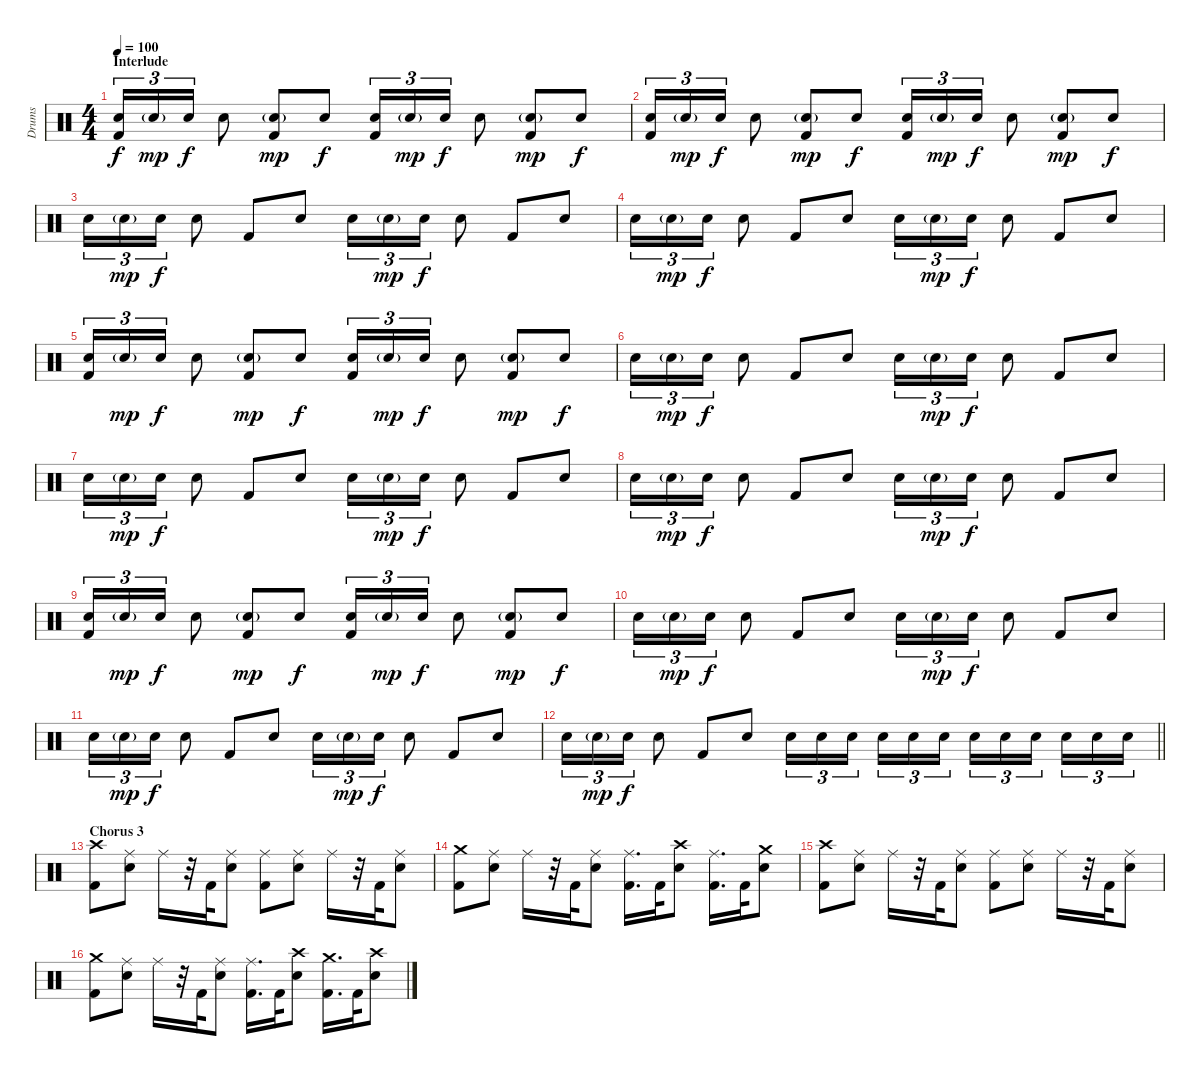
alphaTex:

\track ("Drums" "Drums") {instrument percussion}
\staff {score}
\articulation defaults
\ts (4 4)
\section ("" "Interlude")
\tempo 100
\clef neutral
\ks c
("Snare (hit) 2" "Kick (hit) 2").16{tu (3 2) dy f} "Snare (hit) 2"{g}.16{tu (3 2) dy mp} "Snare (hit) 2".16{tu (3 2) dy f} "Snare (hit) 2".8 ("Snare (hit) 2"{g} "Kick (hit) 2").8{dy mp} "Snare (hit) 2".8{dy f} ("Snare (hit) 2" "Kick (hit) 2").16{tu (3 2)} "Snare (hit) 2"{g}.16{tu (3 2) dy mp} "Snare (hit) 2".16{tu (3 2) dy f} "Snare (hit) 2".8 ("Snare (hit) 2"{g} "Kick (hit) 2").8{dy mp} "Snare (hit) 2".8{dy f} |
("Snare (hit) 2" "Kick (hit) 2").16{tu (3 2)} "Snare (hit) 2"{g}.16{tu (3 2) dy mp} "Snare (hit) 2".16{tu (3 2) dy f} "Snare (hit) 2".8 ("Snare (hit) 2"{g} "Kick (hit) 2").8{dy mp} "Snare (hit) 2".8{dy f} ("Snare (hit) 2" "Kick (hit) 2").16{tu (3 2)} "Snare (hit) 2"{g}.16{tu (3 2) dy mp} "Snare (hit) 2".16{tu (3 2) dy f} "Snare (hit) 2".8 ("Snare (hit) 2"{g} "Kick (hit) 2").8{dy mp} "Snare (hit) 2".8{dy f} |
"Snare (hit) 2".16{tu (3 2)} "Snare (hit) 2"{g}.16{tu (3 2) dy mp} "Snare (hit) 2".16{tu (3 2) dy f} "Snare (hit) 2".8 "Kick (hit) 2".8 "Snare (hit) 2".8 "Snare (hit) 2".16{tu (3 2)} "Snare (hit) 2"{g}.16{tu (3 2) dy mp} "Snare (hit) 2".16{tu (3 2) dy f} "Snare (hit) 2".8 "Kick (hit) 2".8 "Snare (hit) 2".8 |
"Snare (hit) 2".16{tu (3 2)} "Snare (hit) 2"{g}.16{tu (3 2) dy mp} "Snare (hit) 2".16{tu (3 2) dy f} "Snare (hit) 2".8 "Kick (hit) 2".8 "Snare (hit) 2".8 "Snare (hit) 2".16{tu (3 2)} "Snare (hit) 2"{g}.16{tu (3 2) dy mp} "Snare (hit) 2".16{tu (3 2) dy f} "Snare (hit) 2".8 "Kick (hit) 2".8 "Snare (hit) 2".8 |
("Snare (hit) 2" "Kick (hit) 2").16{tu (3 2)} "Snare (hit) 2"{g}.16{tu (3 2) dy mp} "Snare (hit) 2".16{tu (3 2) dy f} "Snare (hit) 2".8 ("Snare (hit) 2"{g} "Kick (hit) 2").8{dy mp} "Snare (hit) 2".8{dy f} ("Snare (hit) 2" "Kick (hit) 2").16{tu (3 2)} "Snare (hit) 2"{g}.16{tu (3 2) dy mp} "Snare (hit) 2".16{tu (3 2) dy f} "Snare (hit) 2".8 ("Snare (hit) 2"{g} "Kick (hit) 2").8{dy mp} "Snare (hit) 2".8{dy f} |
"Snare (hit) 2".16{tu (3 2)} "Snare (hit) 2"{g}.16{tu (3 2) dy mp} "Snare (hit) 2".16{tu (3 2) dy f} "Snare (hit) 2".8 "Kick (hit) 2".8 "Snare (hit) 2".8 "Snare (hit) 2".16{tu (3 2)} "Snare (hit) 2"{g}.16{tu (3 2) dy mp} "Snare (hit) 2".16{tu (3 2) dy f} "Snare (hit) 2".8 "Kick (hit) 2".8 "Snare (hit) 2".8 |
"Snare (hit) 2".16{tu (3 2)} "Snare (hit) 2"{g}.16{tu (3 2) dy mp} "Snare (hit) 2".16{tu (3 2) dy f} "Snare (hit) 2".8 "Kick (hit) 2".8 "Snare (hit) 2".8 "Snare (hit) 2".16{tu (3 2)} "Snare (hit) 2"{g}.16{tu (3 2) dy mp} "Snare (hit) 2".16{tu (3 2) dy f} "Snare (hit) 2".8 "Kick (hit) 2".8 "Snare (hit) 2".8 |
"Snare (hit) 2".16{tu (3 2)} "Snare (hit) 2"{g}.16{tu (3 2) dy mp} "Snare (hit) 2".16{tu (3 2) dy f} "Snare (hit) 2".8 "Kick (hit) 2".8 "Snare (hit) 2".8 "Snare (hit) 2".16{tu (3 2)} "Snare (hit) 2"{g}.16{tu (3 2) dy mp} "Snare (hit) 2".16{tu (3 2) dy f} "Snare (hit) 2".8 "Kick (hit) 2".8 "Snare (hit) 2".8 |
("Snare (hit) 2" "Kick (hit) 2").16{tu (3 2)} "Snare (hit) 2"{g}.16{tu (3 2) dy mp} "Snare (hit) 2".16{tu (3 2) dy f} "Snare (hit) 2".8 ("Snare (hit) 2"{g} "Kick (hit) 2").8{dy mp} "Snare (hit) 2".8{dy f} ("Snare (hit) 2" "Kick (hit) 2").16{tu (3 2)} "Snare (hit) 2"{g}.16{tu (3 2) dy mp} "Snare (hit) 2".16{tu (3 2) dy f} "Snare (hit) 2".8 ("Snare (hit) 2"{g} "Kick (hit) 2").8{dy mp} "Snare (hit) 2".8{dy f} |
"Snare (hit) 2".16{tu (3 2)} "Snare (hit) 2"{g}.16{tu (3 2) dy mp} "Snare (hit) 2".16{tu (3 2) dy f} "Snare (hit) 2".8 "Kick (hit) 2".8 "Snare (hit) 2".8 "Snare (hit) 2".16{tu (3 2)} "Snare (hit) 2"{g}.16{tu (3 2) dy mp} "Snare (hit) 2".16{tu (3 2) dy f} "Snare (hit) 2".8 "Kick (hit) 2".8 "Snare (hit) 2".8 |
"Snare (hit) 2".16{tu (3 2)} "Snare (hit) 2"{g}.16{tu (3 2) dy mp} "Snare (hit) 2".16{tu (3 2) dy f} "Snare (hit) 2".8 "Kick (hit) 2".8 "Snare (hit) 2".8 "Snare (hit) 2".16{tu (3 2)} "Snare (hit) 2"{g}.16{tu (3 2) dy mp} "Snare (hit) 2".16{tu (3 2) dy f} "Snare (hit) 2".8 "Kick (hit) 2".8 "Snare (hit) 2".8 |
\barLineRight lightlight "Snare (hit) 2".16{tu (3 2)} "Snare (hit) 2"{g}.16{tu (3 2) dy mp} "Snare (hit) 2".16{tu (3 2) dy f} "Snare (hit) 2".8 "Kick (hit) 2".8 "Snare (hit) 2".8 "Snare (hit) 2".16{tu (3 2)} "Snare (hit) 2".16{tu (3 2)} "Snare (hit) 2".16{tu (3 2) beam splitsecondary} "Snare (hit) 2".16{tu (3 2)} "Snare (hit) 2".16{tu (3 2)} "Snare (hit) 2".16{tu (3 2)} "Snare (hit) 2".16{tu (3 2)} "Snare (hit) 2".16{tu (3 2)} "Snare (hit) 2".16{tu (3 2) beam splitsecondary} "Snare (hit) 2".16{tu (3 2)} "Snare (hit) 2".16{tu (3 2)} "Snare (hit) 2".16{tu (3 2)}
|
\section ("" "Chorus 3")
("Crash high (hit)" "Kick (hit) 2").8 ("Ride (middle)" "Snare (hit) 2").8 "Ride (middle)".16 r.32 "Kick (hit) 2".32 ("Ride (middle)" "Snare (hit) 2").8 ("Ride (middle)" "Kick (hit) 2").8 ("Ride (middle)" "Snare (hit) 2").8 "Ride (middle)".16 r.32 "Kick (hit) 2".32 ("Ride (middle)" "Snare (hit) 2").8 |
("Crash medium (hit)" "Kick (hit) 2").8 ("Ride (middle)" "Snare (hit) 2").8 "Ride (middle)".16 r.32 "Kick (hit) 2".32 ("Ride (middle)" "Snare (hit) 2").8 ("Ride (middle)" "Kick (hit) 2").16{d} "Kick (hit) 2".32 ("Crash high (hit)" "Snare (hit) 2").8 ("Ride (middle)" "Kick (hit) 2").16{d} "Kick (hit) 2".32 ("Crash medium (hit)" "Snare (hit) 2").8 |
("Crash high (hit)" "Kick (hit) 2").8 ("Ride (middle)" "Snare (hit) 2").8 "Ride (middle)".16 r.32 "Kick (hit) 2".32 ("Ride (middle)" "Snare (hit) 2").8 ("Ride (middle)" "Kick (hit) 2").8 ("Ride (middle)" "Snare (hit) 2").8 "Ride (middle)".16 r.32 "Kick (hit) 2".32 ("Ride (middle)" "Snare (hit) 2").8 |
("Crash medium (hit)" "Kick (hit) 2").8 ("Ride (middle)" "Snare (hit) 2").8 "Ride (middle)".16 r.32 "Kick (hit) 2".32 ("Ride (middle)" "Snare (hit) 2").8 ("Ride (middle)" "Kick (hit) 2").16{d} "Kick (hit) 2".32 ("Crash high (hit)" "Snare (hit) 2").8 ("Crash medium (hit)" "Kick (hit) 2").16{d} "Kick (hit) 2".32 ("Crash high (hit)" "Snare (hit) 2").8
